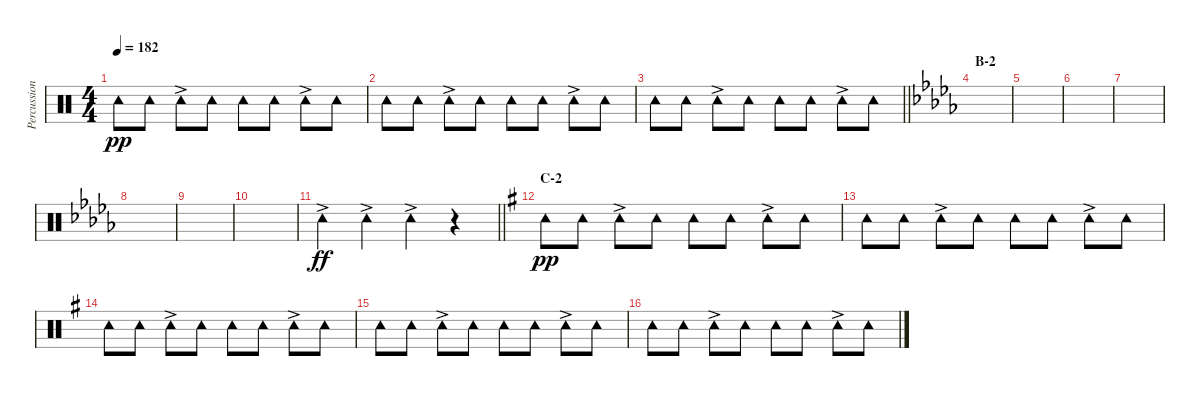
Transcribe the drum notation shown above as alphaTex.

\track ("Percussion (Tainaka Ritsu)" "Percussion") {instrument percussion}
\staff {score}
\articulation defaults
\ts (4 4)
\tempo 182
\clef neutral
\ks c "Tambourine (hit)".8{dy pp} "Tambourine (hit)".8 "Tambourine (hit)"{ac}.8 "Tambourine (hit)".8 "Tambourine (hit)".8 "Tambourine (hit)".8 "Tambourine (hit)"{ac}.8 "Tambourine (hit)".8
|
"Tambourine (hit)".8 "Tambourine (hit)".8 "Tambourine (hit)"{ac}.8 "Tambourine (hit)".8 "Tambourine (hit)".8 "Tambourine (hit)".8 "Tambourine (hit)"{ac}.8 "Tambourine (hit)".8 |
\barLineRight lightlight "Tambourine (hit)".8 "Tambourine (hit)".8 "Tambourine (hit)"{ac}.8 "Tambourine (hit)".8 "Tambourine (hit)".8 "Tambourine (hit)".8 "Tambourine (hit)"{ac}.8 "Tambourine (hit)".8
|
\section ("" "B-2")
\ks db
|
|
|
|
|
|
|
\barLineRight lightlight "Tambourine (hit)"{ac}.4{dy ff} "Tambourine (hit)"{ac}.4 "Tambourine (hit)"{ac}.4
r.4 |
\section ("" "C-2")
\ks g "Tambourine (hit)".8{dy pp} "Tambourine (hit)".8 "Tambourine (hit)"{ac}.8 "Tambourine (hit)".8 "Tambourine (hit)".8 "Tambourine (hit)".8 "Tambourine (hit)"{ac}.8 "Tambourine (hit)".8
|
"Tambourine (hit)".8 "Tambourine (hit)".8 "Tambourine (hit)"{ac}.8 "Tambourine (hit)".8 "Tambourine (hit)".8 "Tambourine (hit)".8 "Tambourine (hit)"{ac}.8 "Tambourine (hit)".8 |
"Tambourine (hit)".8 "Tambourine (hit)".8 "Tambourine (hit)"{ac}.8 "Tambourine (hit)".8 "Tambourine (hit)".8 "Tambourine (hit)".8 "Tambourine (hit)"{ac}.8 "Tambourine (hit)".8 |
"Tambourine (hit)".8 "Tambourine (hit)".8 "Tambourine (hit)"{ac}.8 "Tambourine (hit)".8 "Tambourine (hit)".8 "Tambourine (hit)".8 "Tambourine (hit)"{ac}.8 "Tambourine (hit)".8 |
"Tambourine (hit)".8 "Tambourine (hit)".8 "Tambourine (hit)"{ac}.8 "Tambourine (hit)".8 "Tambourine (hit)".8 "Tambourine (hit)".8 "Tambourine (hit)"{ac}.8 "Tambourine (hit)".8
